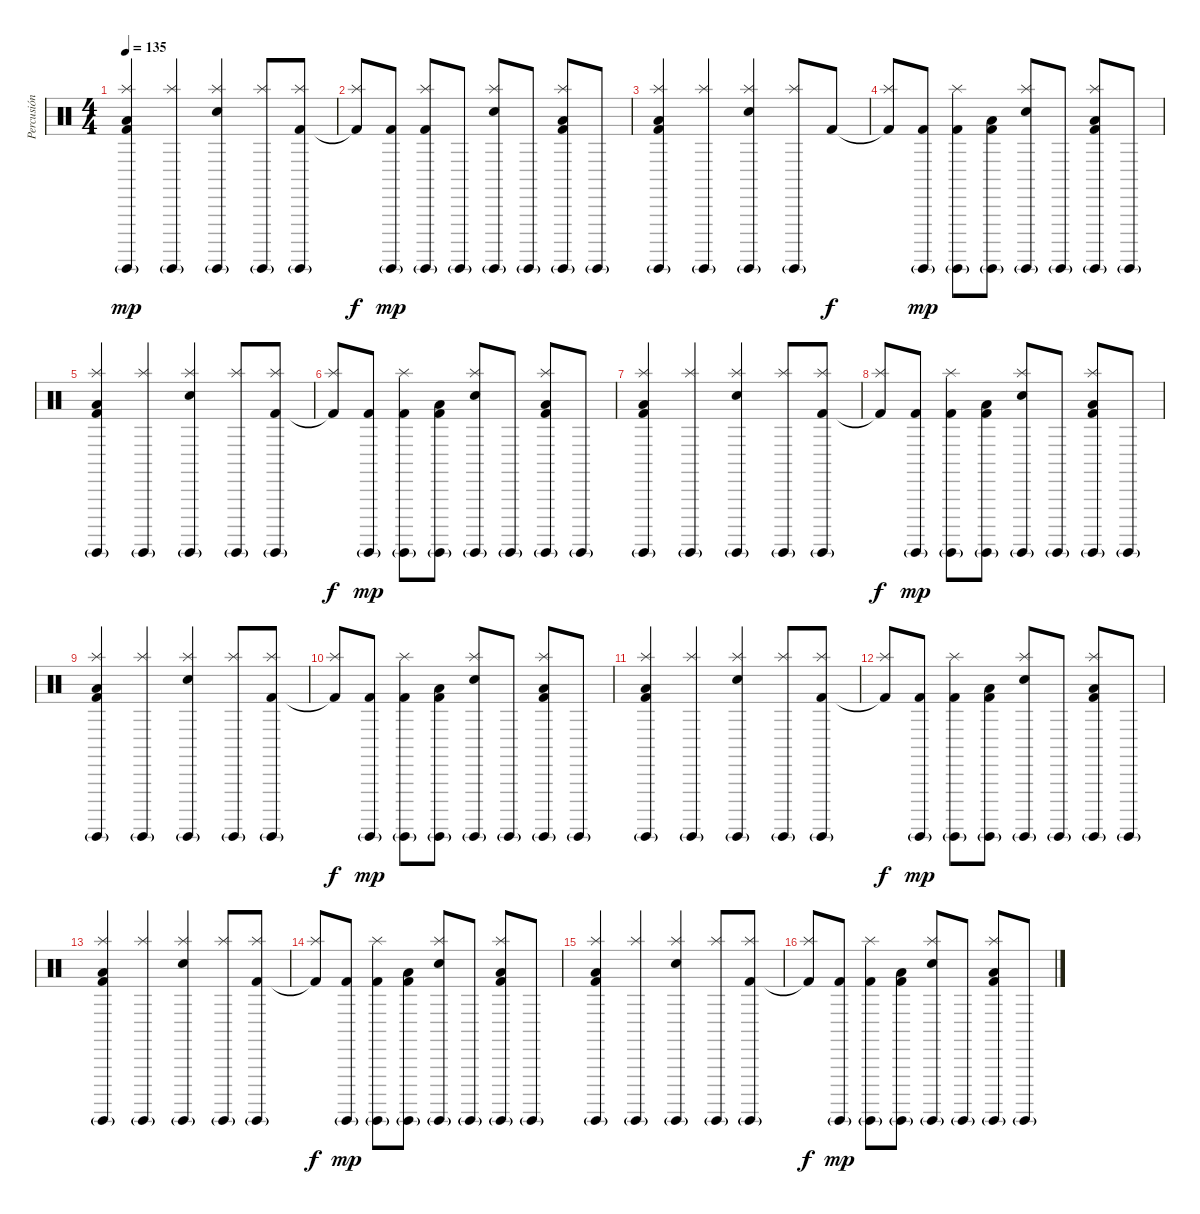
\track ("Percusión" "Percusión") {instrument percussion}
\staff {score}
\articulation defaults
\ts (4 4)
\tempo 135
\clef neutral
\ks c
("Kick (hit) 2" "Guiro (hit)"{g} "Splash (hit)" "Low Floor Tom (hit)").4{dy mp volume 11} ("Splash (hit)" "Guiro (hit)"{g}).4 ("Snare (hit) 2" "Splash (hit)" "Guiro (hit)"{g}).4 ("Splash (hit)" "Guiro (hit)"{g}).8 ("Kick (hit) 2" "Splash (hit)" "Guiro (hit)"{g}).8 |
("Kick (hit) 2"{t} "Splash (hit)").8{dy f} ("Kick (hit) 2" "Guiro (hit)"{g}).8{dy mp} ("Kick (hit) 2" "Guiro (hit)"{g} "Splash (hit)").8 "Guiro (hit)"{g}.8 ("Snare (hit) 2" "Guiro (hit)"{g} "Splash (hit)").8 "Guiro (hit)"{g}.8 ("Kick (hit) 2" "Guiro (hit)"{g} "Splash (hit)" "Low Floor Tom (hit)").8 "Guiro (hit)"{g}.8 |
("Kick (hit) 2" "Guiro (hit)"{g} "Splash (hit)" "Low Floor Tom (hit)").4 ("Splash (hit)" "Guiro (hit)"{g}).4 ("Snare (hit) 2" "Splash (hit)" "Guiro (hit)"{g}).4 ("Splash (hit)" "Guiro (hit)"{g}).8 "Kick (hit) 2".8{dy f} |
("Kick (hit) 2"{t} "Splash (hit)").8 ("Kick (hit) 2" "Guiro (hit)"{g}).8{dy mp} ("Kick (hit) 2" "Guiro (hit)"{g} "Splash (hit)").8 ("Kick (hit) 2" "Guiro (hit)"{g} "Low Floor Tom (hit)").8 ("Snare (hit) 2" "Guiro (hit)"{g} "Splash (hit)").8 "Guiro (hit)"{g}.8 ("Kick (hit) 2" "Guiro (hit)"{g} "Splash (hit)" "Low Floor Tom (hit)").8 "Guiro (hit)"{g}.8 |
("Kick (hit) 2" "Guiro (hit)"{g} "Splash (hit)" "Low Floor Tom (hit)").4 ("Splash (hit)" "Guiro (hit)"{g}).4 ("Snare (hit) 2" "Splash (hit)" "Guiro (hit)"{g}).4 ("Splash (hit)" "Guiro (hit)"{g}).8 ("Kick (hit) 2" "Splash (hit)" "Guiro (hit)"{g}).8 |
("Kick (hit) 2"{t} "Splash (hit)").8{dy f} ("Kick (hit) 2" "Guiro (hit)"{g}).8{dy mp} ("Kick (hit) 2" "Guiro (hit)"{g} "Splash (hit)").8 ("Kick (hit) 2" "Guiro (hit)"{g} "Low Floor Tom (hit)").8 ("Snare (hit) 2" "Guiro (hit)"{g} "Splash (hit)").8 "Guiro (hit)"{g}.8 ("Kick (hit) 2" "Guiro (hit)"{g} "Splash (hit)" "Low Floor Tom (hit)").8 "Guiro (hit)"{g}.8 |
("Kick (hit) 2" "Guiro (hit)"{g} "Splash (hit)" "Low Floor Tom (hit)").4 ("Splash (hit)" "Guiro (hit)"{g}).4 ("Snare (hit) 2" "Splash (hit)" "Guiro (hit)"{g}).4 ("Splash (hit)" "Guiro (hit)"{g}).8 ("Kick (hit) 2" "Splash (hit)" "Guiro (hit)"{g}).8 |
("Kick (hit) 2"{t} "Splash (hit)").8{dy f} ("Kick (hit) 2" "Guiro (hit)"{g}).8{dy mp} ("Kick (hit) 2" "Guiro (hit)"{g} "Splash (hit)").8 ("Kick (hit) 2" "Guiro (hit)"{g} "Low Floor Tom (hit)").8 ("Snare (hit) 2" "Guiro (hit)"{g} "Splash (hit)").8 "Guiro (hit)"{g}.8 ("Kick (hit) 2" "Guiro (hit)"{g} "Splash (hit)" "Low Floor Tom (hit)").8 "Guiro (hit)"{g}.8 |
("Kick (hit) 2" "Guiro (hit)"{g} "Splash (hit)" "Low Floor Tom (hit)").4 ("Splash (hit)" "Guiro (hit)"{g}).4 ("Snare (hit) 2" "Splash (hit)" "Guiro (hit)"{g}).4 ("Splash (hit)" "Guiro (hit)"{g}).8 ("Kick (hit) 2" "Splash (hit)" "Guiro (hit)"{g}).8 |
("Kick (hit) 2"{t} "Splash (hit)").8{dy f} ("Kick (hit) 2" "Guiro (hit)"{g}).8{dy mp} ("Kick (hit) 2" "Guiro (hit)"{g} "Splash (hit)").8 ("Kick (hit) 2" "Guiro (hit)"{g} "Low Floor Tom (hit)").8 ("Snare (hit) 2" "Guiro (hit)"{g} "Splash (hit)").8 "Guiro (hit)"{g}.8 ("Kick (hit) 2" "Guiro (hit)"{g} "Splash (hit)" "Low Floor Tom (hit)").8 "Guiro (hit)"{g}.8 |
("Kick (hit) 2" "Guiro (hit)"{g} "Splash (hit)" "Low Floor Tom (hit)").4 ("Splash (hit)" "Guiro (hit)"{g}).4 ("Snare (hit) 2" "Splash (hit)" "Guiro (hit)"{g}).4 ("Splash (hit)" "Guiro (hit)"{g}).8 ("Kick (hit) 2" "Splash (hit)" "Guiro (hit)"{g}).8 |
("Kick (hit) 2"{t} "Splash (hit)").8{dy f} ("Kick (hit) 2" "Guiro (hit)"{g}).8{dy mp} ("Kick (hit) 2" "Guiro (hit)"{g} "Splash (hit)").8 ("Kick (hit) 2" "Guiro (hit)"{g} "Low Floor Tom (hit)").8 ("Snare (hit) 2" "Guiro (hit)"{g} "Splash (hit)").8 "Guiro (hit)"{g}.8 ("Kick (hit) 2" "Guiro (hit)"{g} "Splash (hit)" "Low Floor Tom (hit)").8 "Guiro (hit)"{g}.8 |
("Kick (hit) 2" "Guiro (hit)"{g} "Splash (hit)" "Low Floor Tom (hit)").4 ("Splash (hit)" "Guiro (hit)"{g}).4 ("Snare (hit) 2" "Splash (hit)" "Guiro (hit)"{g}).4 ("Splash (hit)" "Guiro (hit)"{g}).8 ("Kick (hit) 2" "Splash (hit)" "Guiro (hit)"{g}).8 |
("Kick (hit) 2"{t} "Splash (hit)").8{dy f} ("Kick (hit) 2" "Guiro (hit)"{g}).8{dy mp} ("Kick (hit) 2" "Guiro (hit)"{g} "Splash (hit)").8 ("Kick (hit) 2" "Guiro (hit)"{g} "Low Floor Tom (hit)").8 ("Snare (hit) 2" "Guiro (hit)"{g} "Splash (hit)").8 "Guiro (hit)"{g}.8 ("Kick (hit) 2" "Guiro (hit)"{g} "Splash (hit)" "Low Floor Tom (hit)").8 "Guiro (hit)"{g}.8 |
("Kick (hit) 2" "Guiro (hit)"{g} "Splash (hit)" "Low Floor Tom (hit)").4 ("Splash (hit)" "Guiro (hit)"{g}).4 ("Snare (hit) 2" "Splash (hit)" "Guiro (hit)"{g}).4 ("Splash (hit)" "Guiro (hit)"{g}).8 ("Kick (hit) 2" "Splash (hit)" "Guiro (hit)"{g}).8 |
("Kick (hit) 2"{t} "Splash (hit)").8{dy f} ("Kick (hit) 2" "Guiro (hit)"{g}).8{dy mp} ("Kick (hit) 2" "Guiro (hit)"{g} "Splash (hit)").8 ("Kick (hit) 2" "Guiro (hit)"{g} "Low Floor Tom (hit)").8 ("Snare (hit) 2" "Guiro (hit)"{g} "Splash (hit)").8 "Guiro (hit)"{g}.8 ("Kick (hit) 2" "Guiro (hit)"{g} "Splash (hit)" "Low Floor Tom (hit)").8 "Guiro (hit)"{g}.8
